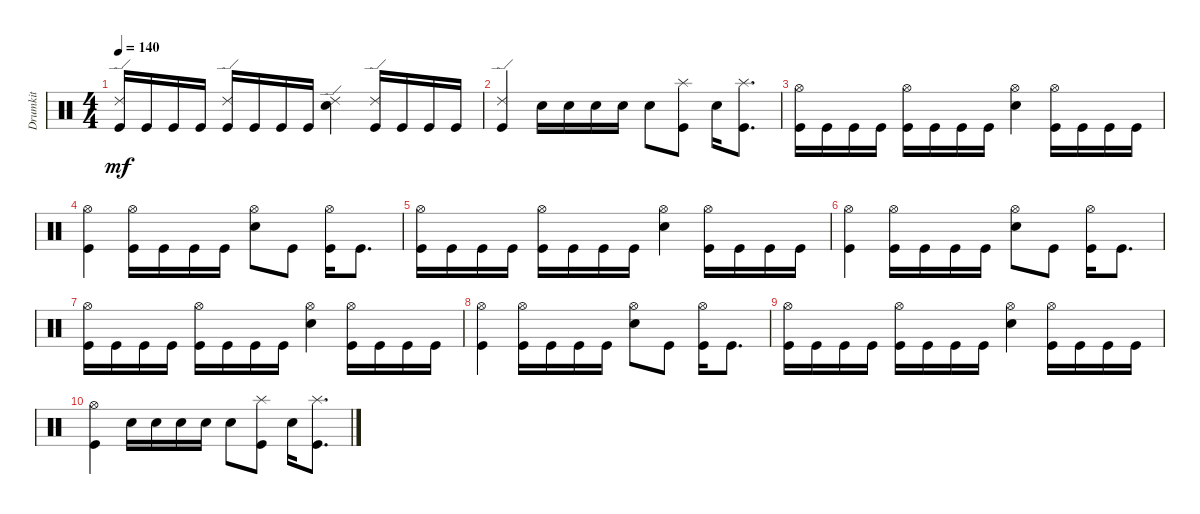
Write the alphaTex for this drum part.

\track ("Drumkit" "Drumkit") {instrument percussion}
\staff {score}
\articulation defaults
\ts (4 4)
\tempo 140
\clef neutral
\ks c
("Kick (hit)" "Ride (edge) 2").16{dy mf} "Kick (hit)".16 "Kick (hit)".16 "Kick (hit)".16 ("Kick (hit)" "Ride (edge) 2").16 "Kick (hit)".16 "Kick (hit)".16 "Kick (hit)".16 ("Snare (hit) 2" "Ride (edge) 2").4 ("Kick (hit)" "Ride (edge) 2").16 "Kick (hit)".16 "Kick (hit)".16 "Kick (hit)".16 |
("Kick (hit)" "Ride (edge) 2").4 "Snare (hit) 2".16 "Snare (hit) 2".16 "Snare (hit) 2".16 "Snare (hit) 2".16 "Snare (hit) 2".8 ("Kick (hit)" "Splash (hit)").8 "Snare (hit) 2".16 ("Kick (hit)" "Splash (hit)").8{d} |
("Kick (hit)" "Hi-Hat (open)").16 "Kick (hit)".16 "Kick (hit)".16 "Kick (hit)".16 ("Kick (hit)" "Hi-Hat (open)").16 "Kick (hit)".16 "Kick (hit)".16 "Kick (hit)".16 ("Snare (hit) 2" "Hi-Hat (open)").4 ("Kick (hit)" "Hi-Hat (open)").16 "Kick (hit)".16 "Kick (hit)".16 "Kick (hit)".16 |
("Kick (hit)" "Hi-Hat (open)").4 ("Kick (hit)" "Hi-Hat (open)").16 "Kick (hit)".16 "Kick (hit)".16 "Kick (hit)".16 ("Snare (hit) 2" "Hi-Hat (open)").8 "Kick (hit)".8 ("Kick (hit)" "Hi-Hat (open)").16 "Kick (hit)".8{d} |
("Kick (hit)" "Hi-Hat (open)").16 "Kick (hit)".16 "Kick (hit)".16 "Kick (hit)".16 ("Kick (hit)" "Hi-Hat (open)").16 "Kick (hit)".16 "Kick (hit)".16 "Kick (hit)".16 ("Snare (hit) 2" "Hi-Hat (open)").4 ("Kick (hit)" "Hi-Hat (open)").16 "Kick (hit)".16 "Kick (hit)".16 "Kick (hit)".16 |
("Kick (hit)" "Hi-Hat (open)").4 ("Kick (hit)" "Hi-Hat (open)").16 "Kick (hit)".16 "Kick (hit)".16 "Kick (hit)".16 ("Snare (hit) 2" "Hi-Hat (open)").8 "Kick (hit)".8 ("Kick (hit)" "Hi-Hat (open)").16 "Kick (hit)".8{d} |
("Kick (hit)" "Hi-Hat (open)").16 "Kick (hit)".16 "Kick (hit)".16 "Kick (hit)".16 ("Kick (hit)" "Hi-Hat (open)").16 "Kick (hit)".16 "Kick (hit)".16 "Kick (hit)".16 ("Snare (hit) 2" "Hi-Hat (open)").4 ("Kick (hit)" "Hi-Hat (open)").16 "Kick (hit)".16 "Kick (hit)".16 "Kick (hit)".16 |
("Kick (hit)" "Hi-Hat (open)").4 ("Kick (hit)" "Hi-Hat (open)").16 "Kick (hit)".16 "Kick (hit)".16 "Kick (hit)".16 ("Snare (hit) 2" "Hi-Hat (open)").8 "Kick (hit)".8 ("Kick (hit)" "Hi-Hat (open)").16 "Kick (hit)".8{d} |
("Kick (hit)" "Hi-Hat (open)").16 "Kick (hit)".16 "Kick (hit)".16 "Kick (hit)".16 ("Kick (hit)" "Hi-Hat (open)").16 "Kick (hit)".16 "Kick (hit)".16 "Kick (hit)".16 ("Snare (hit) 2" "Hi-Hat (open)").4 ("Kick (hit)" "Hi-Hat (open)").16 "Kick (hit)".16 "Kick (hit)".16 "Kick (hit)".16 |
("Kick (hit)" "Hi-Hat (open)").4 "Snare (hit) 2".16 "Snare (hit) 2".16 "Snare (hit) 2".16 "Snare (hit) 2".16 "Snare (hit) 2".8 ("Kick (hit)" "Splash (hit)").8 "Snare (hit) 2".16 ("Kick (hit)" "Splash (hit)").8{d}
